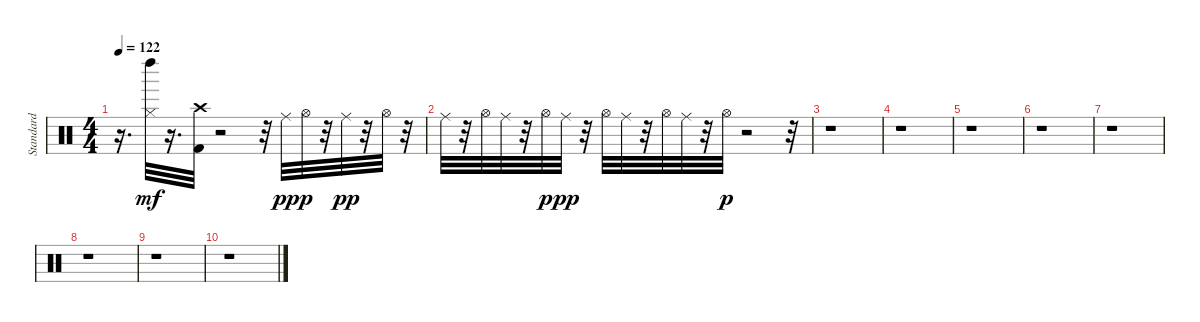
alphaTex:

\track (" Standard" " Standard") {instrument percussion}
\staff {score}
\articulation defaults
\ts (4 4)
\tempo 122
\clef neutral
\ks c
r.16{d dy mp} ("Hi-Hat (closed)" "Left Maraca (hit)").32{dy mf} r.16{d} ("Kick (hit) 2" "Crash high (hit)").32 r.2 r.32 "Ride (middle)".32{dy pp} "Hi-Hat (open)".32{dy p} r.32 "Ride (middle)".32{dy pp} r.32 "Hi-Hat (open)".32 r.32 |
"Ride (middle)".32 r.32 "Hi-Hat (open)".32 "Ride (middle)".32 r.32 "Hi-Hat (open)".32{dy p} "Ride (middle)".32{dy pp} r.32 "Hi-Hat (open)".32 "Ride (middle)".32 r.32 "Hi-Hat (open)".32 "Ride (middle)".32 r.32 "Hi-Hat (open)".32{dy p} r.2 r.32 |
r.1 |
r.1 |
r.1 |
r.1 |
r.1 |
r.1 |
r.1 |
r.1
